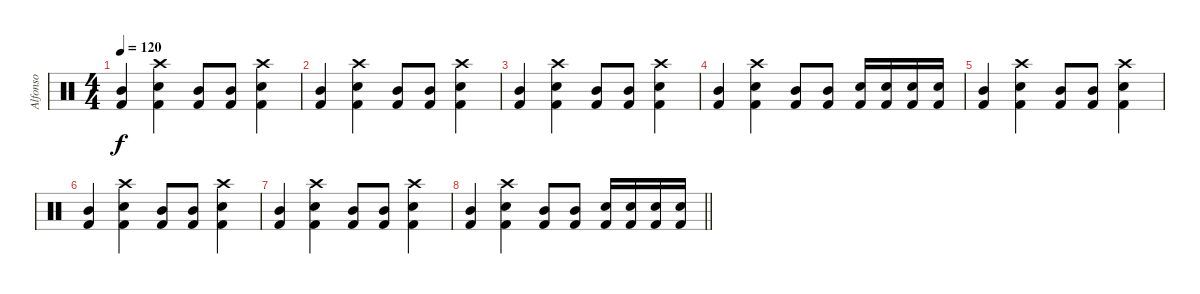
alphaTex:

\track ("Alfonso" "Alfonso") {instrument percussion}
\staff {score}
\articulation defaults
\ts (4 4)
\tempo 120
\clef neutral
\ks c
("Kick (hit) 2" "Mid Tom (hit)").4{dy f} ("Kick (hit) 2" "Snare (hit) 2" "Crash high (hit)").4 ("Kick (hit) 2" "Mid Tom (hit)").8 ("Kick (hit) 2" "Mid Tom (hit)").8 ("Kick (hit) 2" "Snare (hit) 2" "Crash high (hit)").4 |
("Kick (hit) 2" "Mid Tom (hit)").4 ("Kick (hit) 2" "Snare (hit) 2" "Crash high (hit)").4 ("Kick (hit) 2" "Mid Tom (hit)").8 ("Kick (hit) 2" "Mid Tom (hit)").8 ("Kick (hit) 2" "Snare (hit) 2" "Crash high (hit)").4 |
("Kick (hit) 2" "Mid Tom (hit)").4 ("Kick (hit) 2" "Snare (hit) 2" "Crash high (hit)").4 ("Kick (hit) 2" "Mid Tom (hit)").8 ("Kick (hit) 2" "Mid Tom (hit)").8 ("Kick (hit) 2" "Snare (hit) 2" "Crash high (hit)").4 |
("Kick (hit) 2" "Mid Tom (hit)").4 ("Kick (hit) 2" "Snare (hit) 2" "Crash high (hit)").4 ("Kick (hit) 2" "Mid Tom (hit)").8 ("Kick (hit) 2" "Mid Tom (hit)").8 ("Kick (hit) 2" "Snare (hit) 2").16 ("Kick (hit) 2" "Snare (hit) 2").16 ("Kick (hit) 2" "Snare (hit) 2").16 ("Kick (hit) 2" "Snare (hit) 2").16 |
("Kick (hit) 2" "Mid Tom (hit)").4 ("Kick (hit) 2" "Snare (hit) 2" "Crash high (hit)").4 ("Kick (hit) 2" "Mid Tom (hit)").8 ("Kick (hit) 2" "Mid Tom (hit)").8 ("Kick (hit) 2" "Snare (hit) 2" "Crash high (hit)").4 |
("Kick (hit) 2" "Mid Tom (hit)").4 ("Kick (hit) 2" "Snare (hit) 2" "Crash high (hit)").4 ("Kick (hit) 2" "Mid Tom (hit)").8 ("Kick (hit) 2" "Mid Tom (hit)").8 ("Kick (hit) 2" "Snare (hit) 2" "Crash high (hit)").4 |
("Kick (hit) 2" "Mid Tom (hit)").4 ("Kick (hit) 2" "Snare (hit) 2" "Crash high (hit)").4 ("Kick (hit) 2" "Mid Tom (hit)").8 ("Kick (hit) 2" "Mid Tom (hit)").8 ("Kick (hit) 2" "Snare (hit) 2" "Crash high (hit)").4 |
\barLineRight lightlight
("Kick (hit) 2" "Mid Tom (hit)").4 ("Kick (hit) 2" "Snare (hit) 2" "Crash high (hit)").4 ("Kick (hit) 2" "Mid Tom (hit)").8 ("Kick (hit) 2" "Mid Tom (hit)").8 ("Kick (hit) 2" "Snare (hit) 2").16 ("Kick (hit) 2" "Snare (hit) 2").16 ("Kick (hit) 2" "Snare (hit) 2").16 ("Kick (hit) 2" "Snare (hit) 2").16
